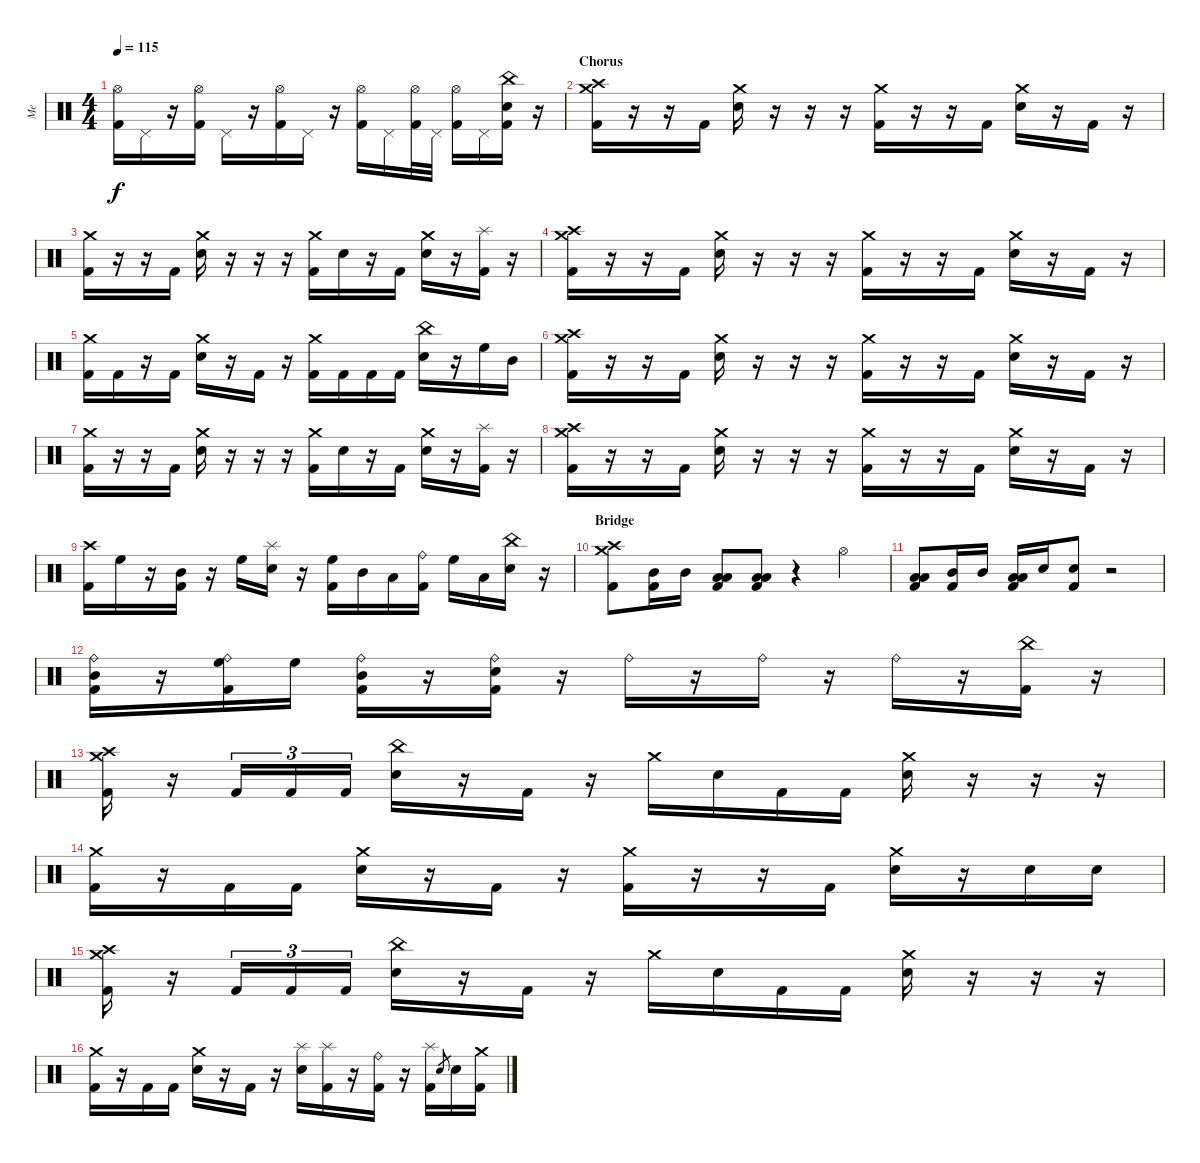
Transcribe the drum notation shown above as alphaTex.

\track ("Me" "Me") {instrument percussion}
\staff {score}
\articulation defaults
\ts (4 4)
\tempo 115
\clef neutral
\ks c
("Hi-Hat (open)" "Kick (hit) 2").16{dy f} "Pedal Hi-Hat (hit)".16 r.16 ("Hi-Hat (open)" "Kick (hit) 2").16 "Pedal Hi-Hat (hit)".16 r.16 ("Hi-Hat (open)" "Kick (hit) 2").16 "Pedal Hi-Hat (hit)".16 r.16 ("Hi-Hat (open)" "Kick (hit) 2").16 "Pedal Hi-Hat (hit)".16 ("Hi-Hat (open)" "Kick (hit) 2").32 "Pedal Hi-Hat (hit)".32 ("Hi-Hat (open)" "Kick (hit) 2").16 "Pedal Hi-Hat (hit)".16 ("China (hit)" "Electric Snare (hit)" "Kick (hit) 2").16 r.16 |
\section ("" "Chorus")
("Crash high (hit)" "Crash medium (hit)" "Kick (hit) 2").16 r.16 r.16 "Kick (hit) 2".16 ("Crash medium (hit)" "Electric Snare (hit)").16 r.16 r.16 r.16 ("Crash medium (hit)" "Kick (hit) 2").16 r.16 r.16 "Kick (hit) 2".16 ("Crash medium (hit)" "Electric Snare (hit)").16 r.16 "Kick (hit) 2".16 r.16 |
("Crash medium (hit)" "Kick (hit) 2").16 r.16 r.16 "Kick (hit) 2".16 ("Crash medium (hit)" "Electric Snare (hit)").16 r.16 r.16 r.16 ("Crash medium (hit)" "Kick (hit) 2").16 "Electric Snare (hit)".16 r.16 "Kick (hit) 2".16 ("Crash medium (hit)" "Electric Snare (hit)").16 r.16 ("Splash (hit)" "Kick (hit) 2").16 r.16 |
("Crash high (hit)" "Crash medium (hit)" "Kick (hit) 2").16 r.16 r.16 "Kick (hit) 2".16 ("Crash medium (hit)" "Electric Snare (hit)").16 r.16 r.16 r.16 ("Crash medium (hit)" "Kick (hit) 2").16 r.16 r.16 "Kick (hit) 2".16 ("Crash medium (hit)" "Electric Snare (hit)").16 r.16 "Kick (hit) 2".16 r.16 |
("Crash medium (hit)" "Kick (hit) 2").16 "Kick (hit) 2".16 r.16 "Kick (hit) 2".16 ("Crash medium (hit)" "Electric Snare (hit)").16 r.16 "Kick (hit) 2".16 r.16 ("Crash medium (hit)" "Kick (hit) 2").16 "Kick (hit) 2".16 "Kick (hit) 2".16 "Kick (hit) 2".16 ("China (hit)" "Electric Snare (hit)").16 r.16 "High Floor Tom (hit)".16 "Mid Tom (hit)".16 |
("Crash high (hit)" "Crash medium (hit)" "Kick (hit) 2").16 r.16 r.16 "Kick (hit) 2".16 ("Crash medium (hit)" "Electric Snare (hit)").16 r.16 r.16 r.16 ("Crash medium (hit)" "Kick (hit) 2").16 r.16 r.16 "Kick (hit) 2".16 ("Crash medium (hit)" "Electric Snare (hit)").16 r.16 "Kick (hit) 2".16 r.16 |
("Crash medium (hit)" "Kick (hit) 2").16 r.16 r.16 "Kick (hit) 2".16 ("Crash medium (hit)" "Electric Snare (hit)").16 r.16 r.16 r.16 ("Crash medium (hit)" "Kick (hit) 2").16 "Electric Snare (hit)".16 r.16 "Kick (hit) 2".16 ("Crash medium (hit)" "Electric Snare (hit)").16 r.16 ("Splash (hit)" "Kick (hit) 2").16 r.16 |
("Crash high (hit)" "Crash medium (hit)" "Kick (hit) 2").16 r.16 r.16 "Kick (hit) 2".16 ("Crash medium (hit)" "Electric Snare (hit)").16 r.16 r.16 r.16 ("Crash medium (hit)" "Kick (hit) 2").16 r.16 r.16 "Kick (hit) 2".16 ("Crash medium (hit)" "Electric Snare (hit)").16 r.16 "Kick (hit) 2".16 r.16 |
("Crash high (hit)" "Kick (hit) 2").16 "High Floor Tom (hit)".16 r.16 ("Mid Tom (hit)" "Kick (hit) 2").16 r.16 "High Floor Tom (hit)".16 ("Splash (hit)" "Electric Snare (hit)").16 r.16 ("High Floor Tom (hit)" "Kick (hit) 2").16 "Mid Tom (hit)".16 "Low Tom (hit)".16 ("Ride (bell)" "Kick (hit) 2").16 "High Floor Tom (hit)".16 "Low Tom (hit)".16 ("China (hit)" "Electric Snare (hit)").16 r.16 |
\section ("" "Bridge")
("Crash high (hit)" "Crash medium (hit)" "Kick (hit) 2").8 ("Mid Tom (hit)" "Kick (hit) 2").16 "Mid Tom (hit)".16 ("Low Tom (hit)" "Low Floor Tom (hit)" "Kick (hit) 2").8 ("Low Tom (hit)" "Low Floor Tom (hit)" "Kick (hit) 2").8 r.4 "Hi-Hat (open)".4 |
("Low Tom (hit)" "Low Floor Tom (hit)" "Kick (hit) 2").8 ("Mid Tom (hit)" "Kick (hit) 2").16 "Mid Tom (hit)".16 ("Low Tom (hit)" "Low Floor Tom (hit)" "Kick (hit) 2").16 "Electric Snare (hit)".16 ("Electric Snare (hit)" "Kick (hit) 2").8 r.2 |
("Ride (bell)" "Mid Tom (hit)" "Kick (hit) 2").16 r.16 ("Ride (bell)" "High Floor Tom (hit)" "Kick (hit) 2").16 "High Floor Tom (hit)".16 ("Ride (bell)" "Mid Tom (hit)" "Kick (hit) 2").16 r.16 ("Ride (bell)" "Electric Snare (hit)" "Kick (hit) 2").16 r.16 "Ride (bell)".16 r.16 "Ride (bell)".16 r.16 "Ride (bell)".16 r.16 ("China (hit)" "Kick (hit) 2").16 r.16 |
("Crash high (hit)" "Crash medium (hit)" "Kick (hit) 2").16 r.16 "Kick (hit) 2".16{tu (3 2)} "Kick (hit) 2".16{tu (3 2)} "Kick (hit) 2".16{tu (3 2)} ("China (hit)" "Electric Snare (hit)").16 r.16 "Kick (hit) 2".16 r.16 "Crash medium (hit)".16 "Electric Snare (hit)".16 "Kick (hit) 2".16 "Kick (hit) 2".16 ("Crash medium (hit)" "Electric Snare (hit)").16 r.16 r.16 r.16 |
("Crash medium (hit)" "Kick (hit) 2").16 r.16 "Kick (hit) 2".16 "Kick (hit) 2".16 ("Crash medium (hit)" "Electric Snare (hit)").16 r.16 "Kick (hit) 2".16 r.16 ("Crash medium (hit)" "Kick (hit) 2").16 r.16 r.16 "Kick (hit) 2".16 ("Crash medium (hit)" "Electric Snare (hit)").16 r.16 "Electric Snare (hit)".16 "Electric Snare (hit)".16 |
("Crash high (hit)" "Crash medium (hit)" "Kick (hit) 2").16 r.16 "Kick (hit) 2".16{tu (3 2)} "Kick (hit) 2".16{tu (3 2)} "Kick (hit) 2".16{tu (3 2)} ("China (hit)" "Electric Snare (hit)").16 r.16 "Kick (hit) 2".16 r.16 "Crash medium (hit)".16 "Electric Snare (hit)".16 "Kick (hit) 2".16 "Kick (hit) 2".16 ("Crash medium (hit)" "Electric Snare (hit)").16 r.16 r.16 r.16 |
("Crash medium (hit)" "Kick (hit) 2").16 r.16 "Kick (hit) 2".16 "Kick (hit) 2".16 ("Crash medium (hit)" "Electric Snare (hit)").16 r.16 "Kick (hit) 2".16 r.16 ("Splash (hit)" "Electric Snare (hit)").16 ("Splash (hit)" "Kick (hit) 2").16 r.16 ("Ride (bell)" "Kick (hit) 2").16 r.16 ("Splash (hit)" "Kick (hit) 2").16 "Electric Snare (hit)".8{gr} "Electric Snare (hit)".16 ("Crash medium (hit)" "Kick (hit) 2").16
